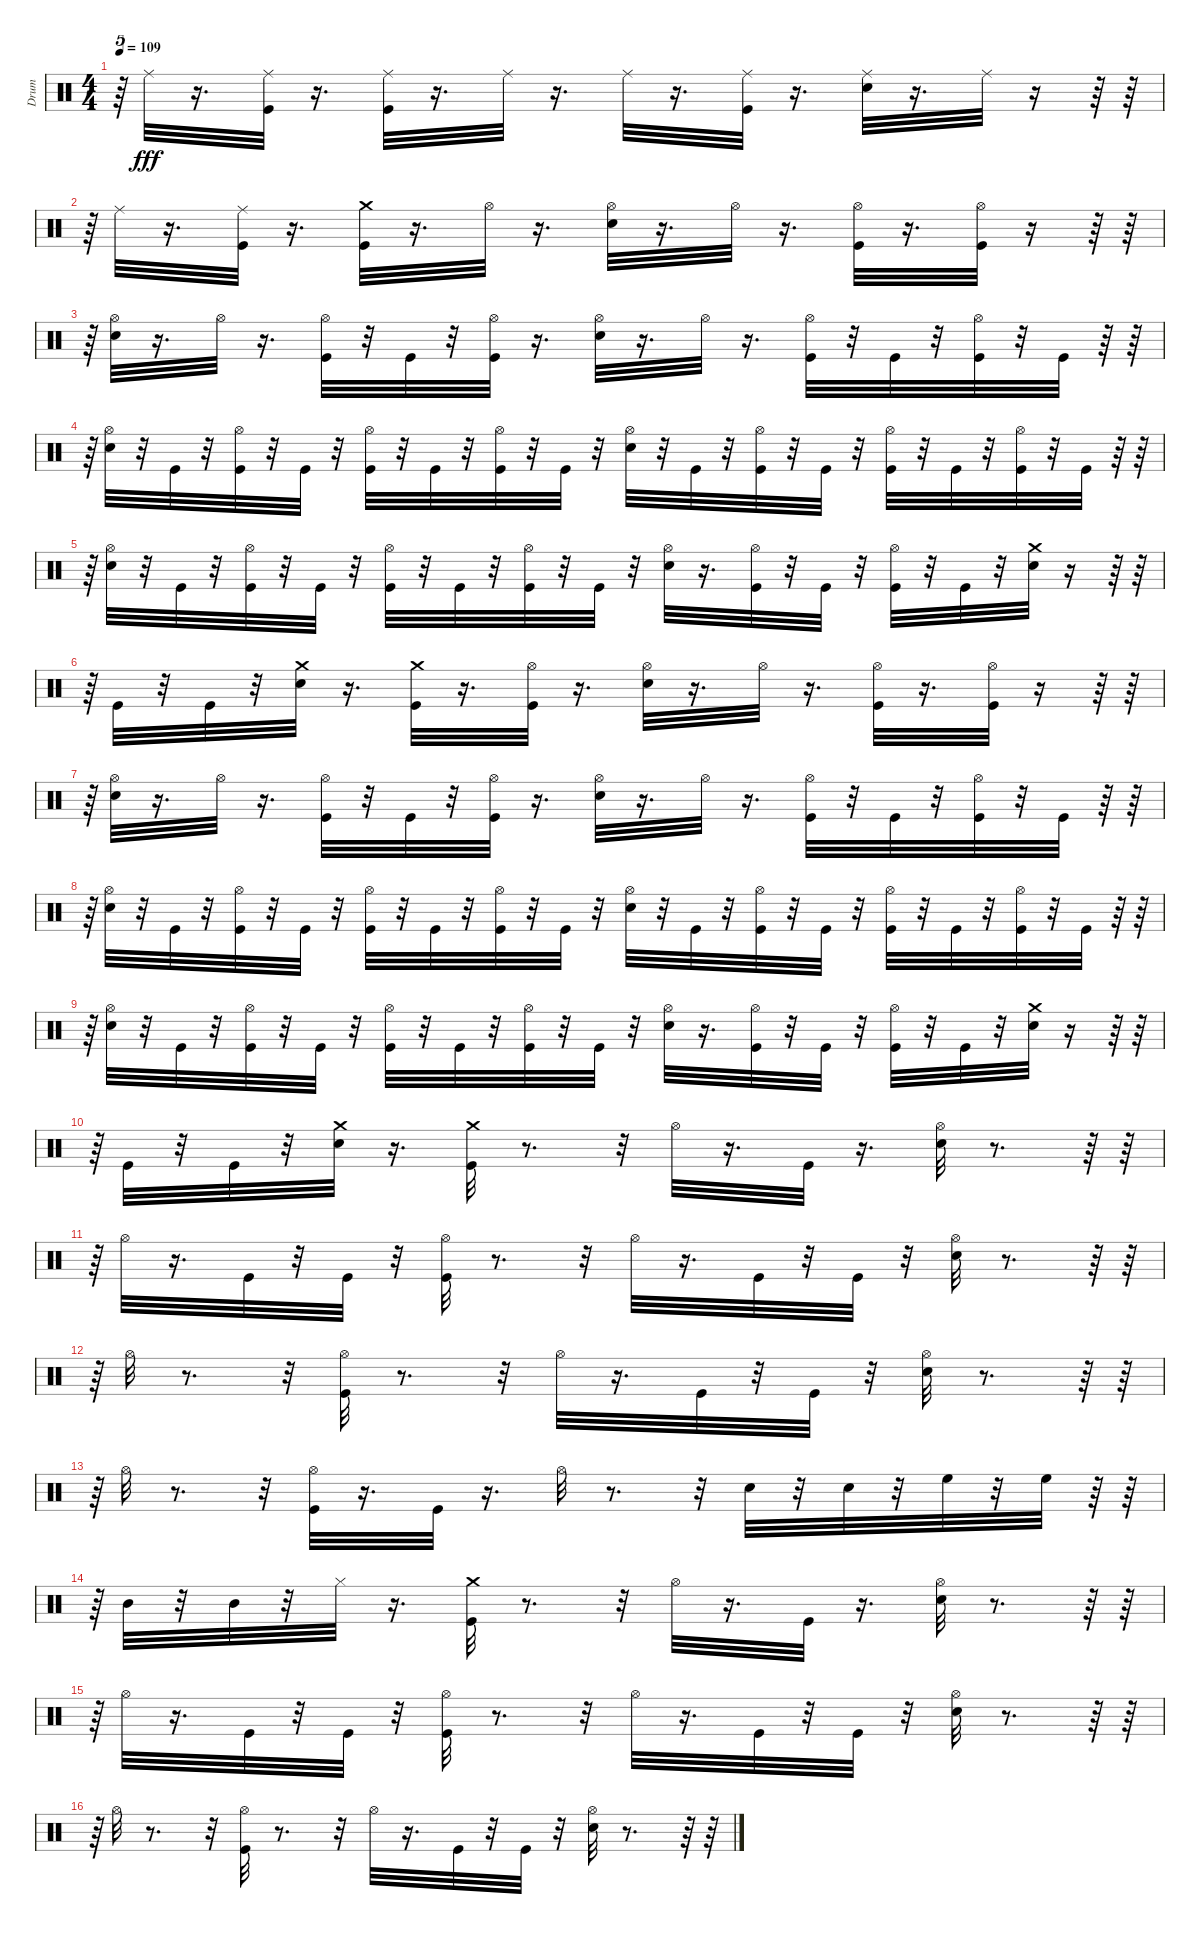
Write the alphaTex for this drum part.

\track ("Drum" "Drum") {instrument percussion}
\staff {score}
\articulation defaults
\ts (4 4)
\tempo 109
\clef neutral
\ks c
r.64{tu (5 4) dy fff} "Ride (middle)".32 r.16{d} ("Ride (middle)" "Kick (hit)").32 r.16{d} ("Kick (hit)" "Ride (middle)").32 r.16{d} "Ride (middle)".32 r.16{d} "Ride (middle)".32 r.16{d} ("Ride (middle)" "Kick (hit)").32 r.16{d} ("Ride (middle)" "Snare (hit) 2").32 r.16{d} "Ride (middle)".32 r.16 r.64 r.64 |
r.64{tu (5 4)} "Ride (middle)".32 r.16{d} ("Kick (hit)" "Ride (middle)").32 r.16{d} ("Kick (hit)" "Crash medium (hit)").32 r.16{d} "Hi-Hat (open)".32 r.16{d} ("Snare (hit) 2" "Hi-Hat (open)").32 r.16{d} "Hi-Hat (open)".32 r.16{d} ("Kick (hit)" "Hi-Hat (open)").32 r.16{d} ("Hi-Hat (open)" "Kick (hit)").32 r.16 r.64 r.64 |
r.64{tu (5 4)} ("Snare (hit) 2" "Hi-Hat (open)").32 r.16{d} "Hi-Hat (open)".32 r.16{d} ("Hi-Hat (open)" "Kick (hit)").32 r.32 "Kick (hit)".32 r.32 ("Kick (hit)" "Hi-Hat (open)").32 r.16{d} ("Hi-Hat (open)" "Snare (hit) 2").32 r.16{d} "Hi-Hat (open)".32 r.16{d} ("Hi-Hat (open)" "Kick (hit)").32 r.32 "Kick (hit)".32 r.32 ("Kick (hit)" "Hi-Hat (open)").32 r.32 "Kick (hit)".32 r.64 r.64 |
r.64{tu (5 4)} ("Snare (hit) 2" "Hi-Hat (open)").32 r.32 "Kick (hit)".32 r.32 ("Hi-Hat (open)" "Kick (hit)").32 r.32 "Kick (hit)".32 r.32 ("Hi-Hat (open)" "Kick (hit)").32 r.32 "Kick (hit)".32 r.32 ("Kick (hit)" "Hi-Hat (open)").32 r.32 "Kick (hit)".32 r.32 ("Hi-Hat (open)" "Snare (hit) 2").32 r.32 "Kick (hit)".32 r.32 ("Kick (hit)" "Hi-Hat (open)").32 r.32 "Kick (hit)".32 r.32 ("Hi-Hat (open)" "Kick (hit)").32 r.32 "Kick (hit)".32 r.32 ("Hi-Hat (open)" "Kick (hit)").32 r.32 "Kick (hit)".32 r.64 r.64 |
r.64{tu (5 4)} ("Hi-Hat (open)" "Snare (hit) 2").32 r.32 "Kick (hit)".32 r.32 ("Hi-Hat (open)" "Kick (hit)").32 r.32 "Kick (hit)".32 r.32 ("Kick (hit)" "Hi-Hat (open)").32 r.32 "Kick (hit)".32 r.32 ("Hi-Hat (open)" "Kick (hit)").32 r.32 "Kick (hit)".32 r.32 ("Hi-Hat (open)" "Snare (hit) 2").32 r.16{d} ("Kick (hit)" "Hi-Hat (open)").32 r.32 "Kick (hit)".32 r.32 ("Hi-Hat (open)" "Kick (hit)").32 r.32 "Kick (hit)".32 r.32 ("Crash medium (hit)" "Snare (hit) 2").32 r.16 r.64 r.64 |
r.64{tu (5 4)} "Kick (hit)".32 r.32 "Kick (hit)".32 r.32 ("Crash medium (hit)" "Snare (hit) 2").32 r.16{d} ("Kick (hit)" "Crash medium (hit)").32 r.16{d} ("Hi-Hat (open)" "Kick (hit)").32 r.16{d} ("Snare (hit) 2" "Hi-Hat (open)").32 r.16{d} "Hi-Hat (open)".32 r.16{d} ("Kick (hit)" "Hi-Hat (open)").32 r.16{d} ("Hi-Hat (open)" "Kick (hit)").32 r.16 r.64 r.64 |
r.64{tu (5 4)} ("Hi-Hat (open)" "Snare (hit) 2").32 r.16{d} "Hi-Hat (open)".32 r.16{d} ("Kick (hit)" "Hi-Hat (open)").32 r.32 "Kick (hit)".32 r.32 ("Hi-Hat (open)" "Kick (hit)").32 r.16{d} ("Hi-Hat (open)" "Snare (hit) 2").32 r.16{d} "Hi-Hat (open)".32 r.16{d} ("Kick (hit)" "Hi-Hat (open)").32 r.32 "Kick (hit)".32 r.32 ("Hi-Hat (open)" "Kick (hit)").32 r.32 "Kick (hit)".32 r.64 r.64 |
r.64{tu (5 4)} ("Hi-Hat (open)" "Snare (hit) 2").32 r.32 "Kick (hit)".32 r.32 ("Hi-Hat (open)" "Kick (hit)").32 r.32 "Kick (hit)".32 r.32 ("Kick (hit)" "Hi-Hat (open)").32 r.32 "Kick (hit)".32 r.32 ("Hi-Hat (open)" "Kick (hit)").32 r.32 "Kick (hit)".32 r.32 ("Snare (hit) 2" "Hi-Hat (open)").32 r.32 "Kick (hit)".32 r.32 ("Kick (hit)" "Hi-Hat (open)").32 r.32 "Kick (hit)".32 r.32 ("Kick (hit)" "Hi-Hat (open)").32 r.32 "Kick (hit)".32 r.32 ("Hi-Hat (open)" "Kick (hit)").32 r.32 "Kick (hit)".32 r.64 r.64 |
r.64{tu (5 4)} ("Snare (hit) 2" "Hi-Hat (open)").32 r.32 "Kick (hit)".32 r.32 ("Hi-Hat (open)" "Kick (hit)").32 r.32 "Kick (hit)".32 r.32 ("Kick (hit)" "Hi-Hat (open)").32 r.32 "Kick (hit)".32 r.32 ("Hi-Hat (open)" "Kick (hit)").32 r.32 "Kick (hit)".32 r.32 ("Hi-Hat (open)" "Snare (hit) 2").32 r.16{d} ("Hi-Hat (open)" "Kick (hit)").32 r.32 "Kick (hit)".32 r.32 ("Hi-Hat (open)" "Kick (hit)").32 r.32 "Kick (hit)".32 r.32 ("Crash medium (hit)" "Snare (hit) 2").32 r.16 r.64 r.64 |
r.64{tu (5 4)} "Kick (hit)".32 r.32 "Kick (hit)".32 r.32 ("Snare (hit) 2" "Crash medium (hit)").32 r.16{d} ("Crash medium (hit)" "Kick (hit)").32 r.8{d} r.32 "Hi-Hat (open)".32 r.16{d} "Kick (hit)".32 r.16{d} ("Hi-Hat (open)" "Snare (hit) 2").32 r.8{d} r.64 r.64 |
r.64{tu (5 4)} "Hi-Hat (open)".32 r.16{d} "Kick (hit)".32 r.32 "Kick (hit)".32 r.32 ("Hi-Hat (open)" "Kick (hit)").32 r.8{d} r.32 "Hi-Hat (open)".32 r.16{d} "Kick (hit)".32 r.32 "Kick (hit)".32 r.32 ("Hi-Hat (open)" "Snare (hit) 2").32 r.8{d} r.64 r.64 |
r.64{tu (5 4)} "Hi-Hat (open)".32 r.8{d} r.32 ("Kick (hit)" "Hi-Hat (open)").32 r.8{d} r.32 "Hi-Hat (open)".32 r.16{d} "Kick (hit)".32 r.32 "Kick (hit)".32 r.32 ("Snare (hit) 2" "Hi-Hat (open)").32 r.8{d} r.64 r.64 |
r.64{tu (5 4)} "Hi-Hat (open)".32 r.8{d} r.32 ("Kick (hit)" "Hi-Hat (open)").32 r.16{d} "Kick (hit)".32 r.16{d} "Hi-Hat (open)".32 r.8{d} r.32 "Snare (hit) 2".32 r.32 "Snare (hit) 2".32 r.32 "High Floor Tom (hit)".32 r.32 "High Floor Tom (hit)".32 r.64 r.64 |
r.64{tu (5 4)} "Mid Tom (hit)".32 r.32 "Mid Tom (hit)".32 r.32 "Hi-Hat (closed)".32 r.16{d} ("Kick (hit)" "Crash medium (hit)").32 r.8{d} r.32 "Hi-Hat (open)".32 r.16{d} "Kick (hit)".32 r.16{d} ("Hi-Hat (open)" "Snare (hit) 2").32 r.8{d} r.64 r.64 |
r.64{tu (5 4)} "Hi-Hat (open)".32 r.16{d} "Kick (hit)".32 r.32 "Kick (hit)".32 r.32 ("Hi-Hat (open)" "Kick (hit)").32 r.8{d} r.32 "Hi-Hat (open)".32 r.16{d} "Kick (hit)".32 r.32 "Kick (hit)".32 r.32 ("Snare (hit) 2" "Hi-Hat (open)").32 r.8{d} r.64 r.64 |
r.64{tu (5 4)} "Hi-Hat (open)".32 r.8{d} r.32 ("Hi-Hat (open)" "Kick (hit)").32 r.8{d} r.32 "Hi-Hat (open)".32 r.16{d} "Kick (hit)".32 r.32 "Kick (hit)".32 r.32 ("Snare (hit) 2" "Hi-Hat (open)").32 r.8{d} r.64 r.64
